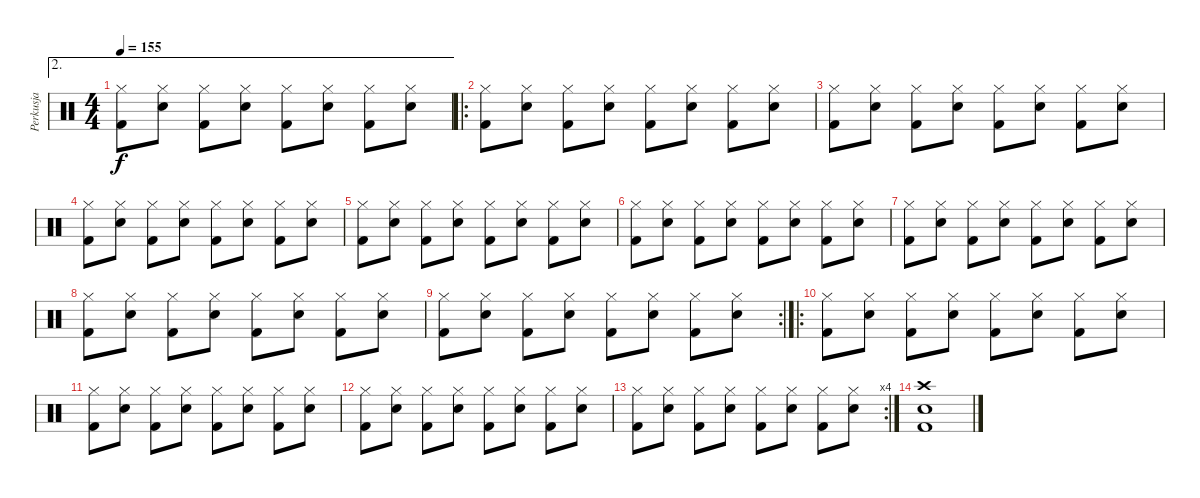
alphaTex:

\track ("Perkusja" "Perkusja") {instrument percussion}
\staff {score}
\articulation defaults
\ae 2
\ts (4 4)
\tempo 155
\clef neutral
\ks c
("Kick (hit) 2" "Hi-Hat (closed)").8{dy f} ("Snare (hit) 2" "Hi-Hat (closed)").8 ("Kick (hit) 2" "Hi-Hat (closed)").8 ("Snare (hit) 2" "Hi-Hat (closed)").8 ("Kick (hit) 2" "Hi-Hat (closed)").8 ("Snare (hit) 2" "Hi-Hat (closed)").8 ("Kick (hit) 2" "Hi-Hat (closed)").8 ("Snare (hit) 2" "Hi-Hat (closed)").8 |
\ro
("Kick (hit) 2" "Hi-Hat (closed)").8 ("Snare (hit) 2" "Hi-Hat (closed)").8 ("Kick (hit) 2" "Hi-Hat (closed)").8 ("Snare (hit) 2" "Hi-Hat (closed)").8 ("Kick (hit) 2" "Hi-Hat (closed)").8 ("Snare (hit) 2" "Hi-Hat (closed)").8 ("Kick (hit) 2" "Hi-Hat (closed)").8 ("Snare (hit) 2" "Hi-Hat (closed)").8 |
("Kick (hit) 2" "Hi-Hat (closed)").8 ("Snare (hit) 2" "Hi-Hat (closed)").8 ("Kick (hit) 2" "Hi-Hat (closed)").8 ("Snare (hit) 2" "Hi-Hat (closed)").8 ("Kick (hit) 2" "Hi-Hat (closed)").8 ("Snare (hit) 2" "Hi-Hat (closed)").8 ("Kick (hit) 2" "Hi-Hat (closed)").8 ("Snare (hit) 2" "Hi-Hat (closed)").8 |
("Kick (hit) 2" "Hi-Hat (closed)").8 ("Snare (hit) 2" "Hi-Hat (closed)").8 ("Kick (hit) 2" "Hi-Hat (closed)").8 ("Snare (hit) 2" "Hi-Hat (closed)").8 ("Kick (hit) 2" "Hi-Hat (closed)").8 ("Snare (hit) 2" "Hi-Hat (closed)").8 ("Kick (hit) 2" "Hi-Hat (closed)").8 ("Snare (hit) 2" "Hi-Hat (closed)").8 |
("Kick (hit) 2" "Hi-Hat (closed)").8 ("Snare (hit) 2" "Hi-Hat (closed)").8 ("Kick (hit) 2" "Hi-Hat (closed)").8 ("Snare (hit) 2" "Hi-Hat (closed)").8 ("Kick (hit) 2" "Hi-Hat (closed)").8 ("Snare (hit) 2" "Hi-Hat (closed)").8 ("Kick (hit) 2" "Hi-Hat (closed)").8 ("Snare (hit) 2" "Hi-Hat (closed)").8 |
("Kick (hit) 2" "Hi-Hat (closed)").8 ("Snare (hit) 2" "Hi-Hat (closed)").8 ("Kick (hit) 2" "Hi-Hat (closed)").8 ("Snare (hit) 2" "Hi-Hat (closed)").8 ("Kick (hit) 2" "Hi-Hat (closed)").8 ("Snare (hit) 2" "Hi-Hat (closed)").8 ("Kick (hit) 2" "Hi-Hat (closed)").8 ("Snare (hit) 2" "Hi-Hat (closed)").8 |
("Kick (hit) 2" "Hi-Hat (closed)").8 ("Snare (hit) 2" "Hi-Hat (closed)").8 ("Kick (hit) 2" "Hi-Hat (closed)").8 ("Snare (hit) 2" "Hi-Hat (closed)").8 ("Kick (hit) 2" "Hi-Hat (closed)").8 ("Snare (hit) 2" "Hi-Hat (closed)").8 ("Kick (hit) 2" "Hi-Hat (closed)").8 ("Snare (hit) 2" "Hi-Hat (closed)").8 |
("Kick (hit) 2" "Hi-Hat (closed)").8 ("Snare (hit) 2" "Hi-Hat (closed)").8 ("Kick (hit) 2" "Hi-Hat (closed)").8 ("Snare (hit) 2" "Hi-Hat (closed)").8 ("Kick (hit) 2" "Hi-Hat (closed)").8 ("Snare (hit) 2" "Hi-Hat (closed)").8 ("Kick (hit) 2" "Hi-Hat (closed)").8 ("Snare (hit) 2" "Hi-Hat (closed)").8 |
\rc 2
("Kick (hit) 2" "Hi-Hat (closed)").8 ("Snare (hit) 2" "Hi-Hat (closed)").8 ("Kick (hit) 2" "Hi-Hat (closed)").8 ("Snare (hit) 2" "Hi-Hat (closed)").8 ("Kick (hit) 2" "Hi-Hat (closed)").8 ("Snare (hit) 2" "Hi-Hat (closed)").8 ("Kick (hit) 2" "Hi-Hat (closed)").8 ("Snare (hit) 2" "Hi-Hat (closed)").8 |
\ro
("Kick (hit) 2" "Hi-Hat (closed)").8 ("Snare (hit) 2" "Hi-Hat (closed)").8 ("Kick (hit) 2" "Hi-Hat (closed)").8 ("Snare (hit) 2" "Hi-Hat (closed)").8 ("Kick (hit) 2" "Hi-Hat (closed)").8 ("Snare (hit) 2" "Hi-Hat (closed)").8 ("Kick (hit) 2" "Hi-Hat (closed)").8 ("Snare (hit) 2" "Hi-Hat (closed)").8 |
("Kick (hit) 2" "Hi-Hat (closed)").8 ("Snare (hit) 2" "Hi-Hat (closed)").8 ("Kick (hit) 2" "Hi-Hat (closed)").8 ("Snare (hit) 2" "Hi-Hat (closed)").8 ("Kick (hit) 2" "Hi-Hat (closed)").8 ("Snare (hit) 2" "Hi-Hat (closed)").8 ("Kick (hit) 2" "Hi-Hat (closed)").8 ("Snare (hit) 2" "Hi-Hat (closed)").8 |
("Kick (hit) 2" "Hi-Hat (closed)").8 ("Snare (hit) 2" "Hi-Hat (closed)").8 ("Kick (hit) 2" "Hi-Hat (closed)").8 ("Snare (hit) 2" "Hi-Hat (closed)").8 ("Kick (hit) 2" "Hi-Hat (closed)").8 ("Snare (hit) 2" "Hi-Hat (closed)").8 ("Kick (hit) 2" "Hi-Hat (closed)").8 ("Snare (hit) 2" "Hi-Hat (closed)").8 |
\rc 4
("Kick (hit) 2" "Hi-Hat (closed)").8 ("Snare (hit) 2" "Hi-Hat (closed)").8 ("Kick (hit) 2" "Hi-Hat (closed)").8 ("Snare (hit) 2" "Hi-Hat (closed)").8 ("Kick (hit) 2" "Hi-Hat (closed)").8 ("Snare (hit) 2" "Hi-Hat (closed)").8 ("Kick (hit) 2" "Hi-Hat (closed)").8 ("Snare (hit) 2" "Hi-Hat (closed)").8 |
("Kick (hit) 2" "Snare (hit) 2" "Crash high (hit)").1
